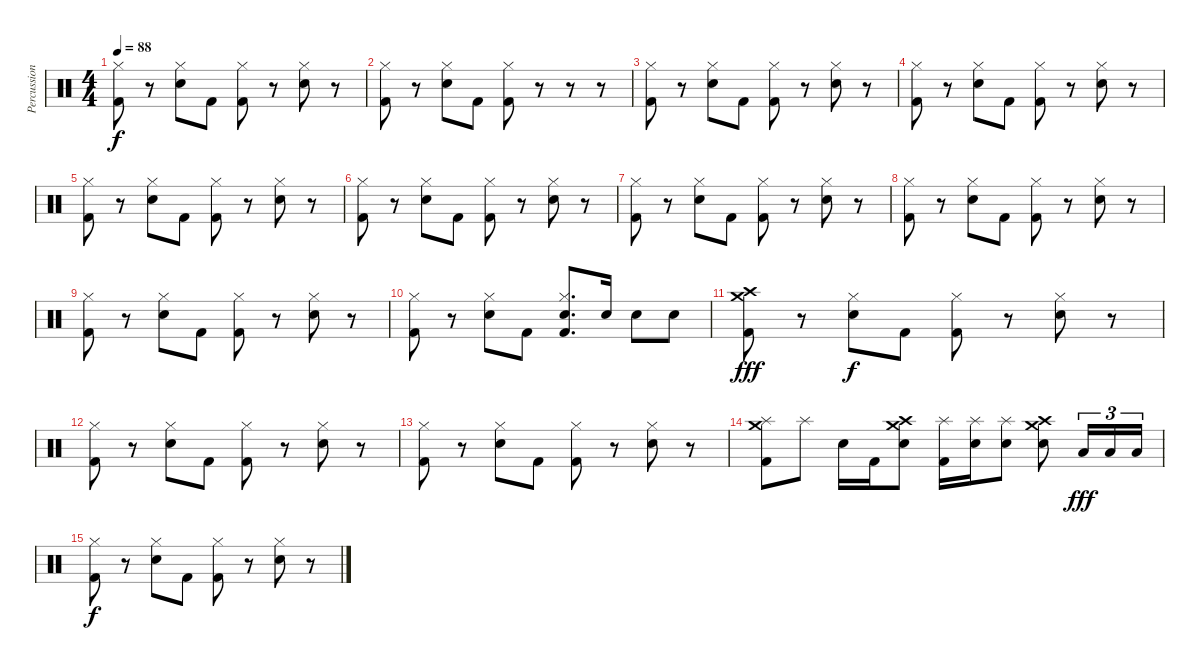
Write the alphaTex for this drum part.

\track ("Percussion" "Percussion") {instrument percussion}
\staff {score}
\articulation defaults
\ts (4 4)
\tempo 88
\clef neutral
\ks c
("Kick (hit) 2" "Hi-Hat (closed)").8{dy f} r.8 ("Snare (hit) 2" "Hi-Hat (closed)").8 "Kick (hit) 2".8 ("Kick (hit) 2" "Hi-Hat (closed)").8 r.8 ("Snare (hit) 2" "Hi-Hat (closed)").8 r.8 |
("Kick (hit) 2" "Hi-Hat (closed)").8 r.8 ("Snare (hit) 2" "Hi-Hat (closed)").8 "Kick (hit) 2".8 ("Kick (hit) 2" "Hi-Hat (closed)").8 r.8 r.8 r.8 |
("Kick (hit) 2" "Hi-Hat (closed)").8 r.8 ("Snare (hit) 2" "Hi-Hat (closed)").8 "Kick (hit) 2".8 ("Kick (hit) 2" "Hi-Hat (closed)").8 r.8 ("Snare (hit) 2" "Hi-Hat (closed)").8 r.8 |
("Kick (hit) 2" "Hi-Hat (closed)").8 r.8 ("Snare (hit) 2" "Hi-Hat (closed)").8 "Kick (hit) 2".8 ("Kick (hit) 2" "Hi-Hat (closed)").8 r.8 ("Snare (hit) 2" "Hi-Hat (closed)").8 r.8 |
("Kick (hit) 2" "Hi-Hat (closed)").8 r.8 ("Snare (hit) 2" "Hi-Hat (closed)").8 "Kick (hit) 2".8 ("Kick (hit) 2" "Hi-Hat (closed)").8 r.8 ("Snare (hit) 2" "Hi-Hat (closed)").8 r.8 |
("Kick (hit) 2" "Hi-Hat (closed)").8 r.8 ("Snare (hit) 2" "Hi-Hat (closed)").8 "Kick (hit) 2".8 ("Kick (hit) 2" "Hi-Hat (closed)").8 r.8 ("Snare (hit) 2" "Hi-Hat (closed)").8 r.8 |
("Kick (hit) 2" "Hi-Hat (closed)").8 r.8 ("Snare (hit) 2" "Hi-Hat (closed)").8 "Kick (hit) 2".8 ("Kick (hit) 2" "Hi-Hat (closed)").8 r.8 ("Snare (hit) 2" "Hi-Hat (closed)").8 r.8 |
("Kick (hit) 2" "Hi-Hat (closed)").8 r.8 ("Snare (hit) 2" "Hi-Hat (closed)").8 "Kick (hit) 2".8 ("Kick (hit) 2" "Hi-Hat (closed)").8 r.8 ("Snare (hit) 2" "Hi-Hat (closed)").8 r.8 |
("Kick (hit) 2" "Hi-Hat (closed)").8 r.8 ("Snare (hit) 2" "Hi-Hat (closed)").8 "Kick (hit) 2".8 ("Kick (hit) 2" "Hi-Hat (closed)").8 r.8 ("Snare (hit) 2" "Hi-Hat (closed)").8 r.8 |
("Kick (hit) 2" "Hi-Hat (closed)").8 r.8 ("Snare (hit) 2" "Hi-Hat (closed)").8 "Kick (hit) 2".8 ("Kick (hit) 2" "Snare (hit) 2" "Hi-Hat (closed)").8{d} "Snare (hit) 2".16 "Snare (hit) 2".8 "Snare (hit) 2".8 |
("Kick (hit) 2" "Crash medium (hit)" "Crash high (hit)").8{dy fff} r.8 ("Snare (hit) 2" "Hi-Hat (closed)").8{dy f} "Kick (hit) 2".8 ("Kick (hit) 2" "Hi-Hat (closed)").8 r.8 ("Snare (hit) 2" "Hi-Hat (closed)").8 r.8 |
("Kick (hit) 2" "Hi-Hat (closed)").8 r.8 ("Snare (hit) 2" "Hi-Hat (closed)").8 "Kick (hit) 2".8 ("Kick (hit) 2" "Hi-Hat (closed)").8 r.8 ("Snare (hit) 2" "Hi-Hat (closed)").8 r.8 |
("Kick (hit) 2" "Hi-Hat (closed)").8 r.8 ("Snare (hit) 2" "Hi-Hat (closed)").8 "Kick (hit) 2".8 ("Kick (hit) 2" "Hi-Hat (closed)").8 r.8 ("Snare (hit) 2" "Hi-Hat (closed)").8 r.8 |
("Crash medium (hit)" "Splash (hit)" "Kick (hit) 2").8 "Splash (hit)".8 "Electric Snare (hit)".16 "Kick (hit) 2".16 ("Crash high (hit)" "Crash medium (hit)" "Electric Snare (hit)").8 ("Splash (hit)" "Kick (hit) 2").16 ("Splash (hit)" "Electric Snare (hit)").16 ("Splash (hit)" "Electric Snare (hit)").8 ("Crash high (hit)" "Crash medium (hit)" "Electric Snare (hit)").8 "Low Floor Tom (hit)".16{tu (3 2) dy fff} "Low Floor Tom (hit)".16{tu (3 2)} "Low Floor Tom (hit)".16{tu (3 2)} |
("Kick (hit) 2" "Hi-Hat (closed)").8{dy f} r.8 ("Snare (hit) 2" "Hi-Hat (closed)").8 "Kick (hit) 2".8 ("Kick (hit) 2" "Hi-Hat (closed)").8 r.8 ("Snare (hit) 2" "Hi-Hat (closed)").8 r.8
